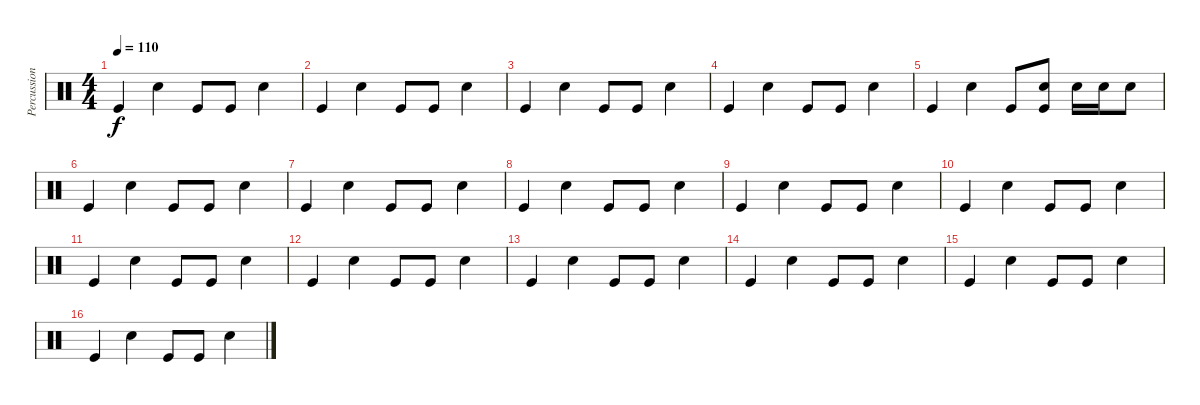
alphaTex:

\track ("Percussion" "Percussion") {instrument percussion}
\staff {score}
\articulation defaults
\ts (4 4)
\tempo 110
\clef neutral
\ks c "Kick (hit)".4{dy f} "Snare (hit) 2".4 "Kick (hit)".8 "Kick (hit)".8 "Snare (hit) 2".4
|
"Kick (hit)".4 "Snare (hit) 2".4 "Kick (hit)".8 "Kick (hit)".8 "Snare (hit) 2".4 |
"Kick (hit)".4 "Snare (hit) 2".4 "Kick (hit)".8 "Kick (hit)".8 "Snare (hit) 2".4 |
"Kick (hit)".4 "Snare (hit) 2".4 "Kick (hit)".8 "Kick (hit)".8 "Snare (hit) 2".4 |
"Kick (hit)".4 "Snare (hit) 2".4 "Kick (hit)".8 ("Snare (hit) 2" "Kick (hit)").8 "Snare (hit) 2".16 "Snare (hit) 2".16 "Snare (hit) 2".8 |
"Kick (hit)".4 "Snare (hit) 2".4 "Kick (hit)".8 "Kick (hit)".8 "Snare (hit) 2".4 |
"Kick (hit)".4 "Snare (hit) 2".4 "Kick (hit)".8 "Kick (hit)".8 "Snare (hit) 2".4 |
"Kick (hit)".4 "Snare (hit) 2".4 "Kick (hit)".8 "Kick (hit)".8 "Snare (hit) 2".4 |
"Kick (hit)".4 "Snare (hit) 2".4 "Kick (hit)".8 "Kick (hit)".8 "Snare (hit) 2".4 |
"Kick (hit)".4 "Snare (hit) 2".4 "Kick (hit)".8 "Kick (hit)".8 "Snare (hit) 2".4 |
"Kick (hit)".4 "Snare (hit) 2".4 "Kick (hit)".8 "Kick (hit)".8 "Snare (hit) 2".4 |
"Kick (hit)".4 "Snare (hit) 2".4 "Kick (hit)".8 "Kick (hit)".8 "Snare (hit) 2".4 |
"Kick (hit)".4 "Snare (hit) 2".4 "Kick (hit)".8 "Kick (hit)".8 "Snare (hit) 2".4 |
"Kick (hit)".4 "Snare (hit) 2".4 "Kick (hit)".8 "Kick (hit)".8 "Snare (hit) 2".4 |
"Kick (hit)".4 "Snare (hit) 2".4 "Kick (hit)".8 "Kick (hit)".8 "Snare (hit) 2".4 |
"Kick (hit)".4 "Snare (hit) 2".4 "Kick (hit)".8 "Kick (hit)".8 "Snare (hit) 2".4
